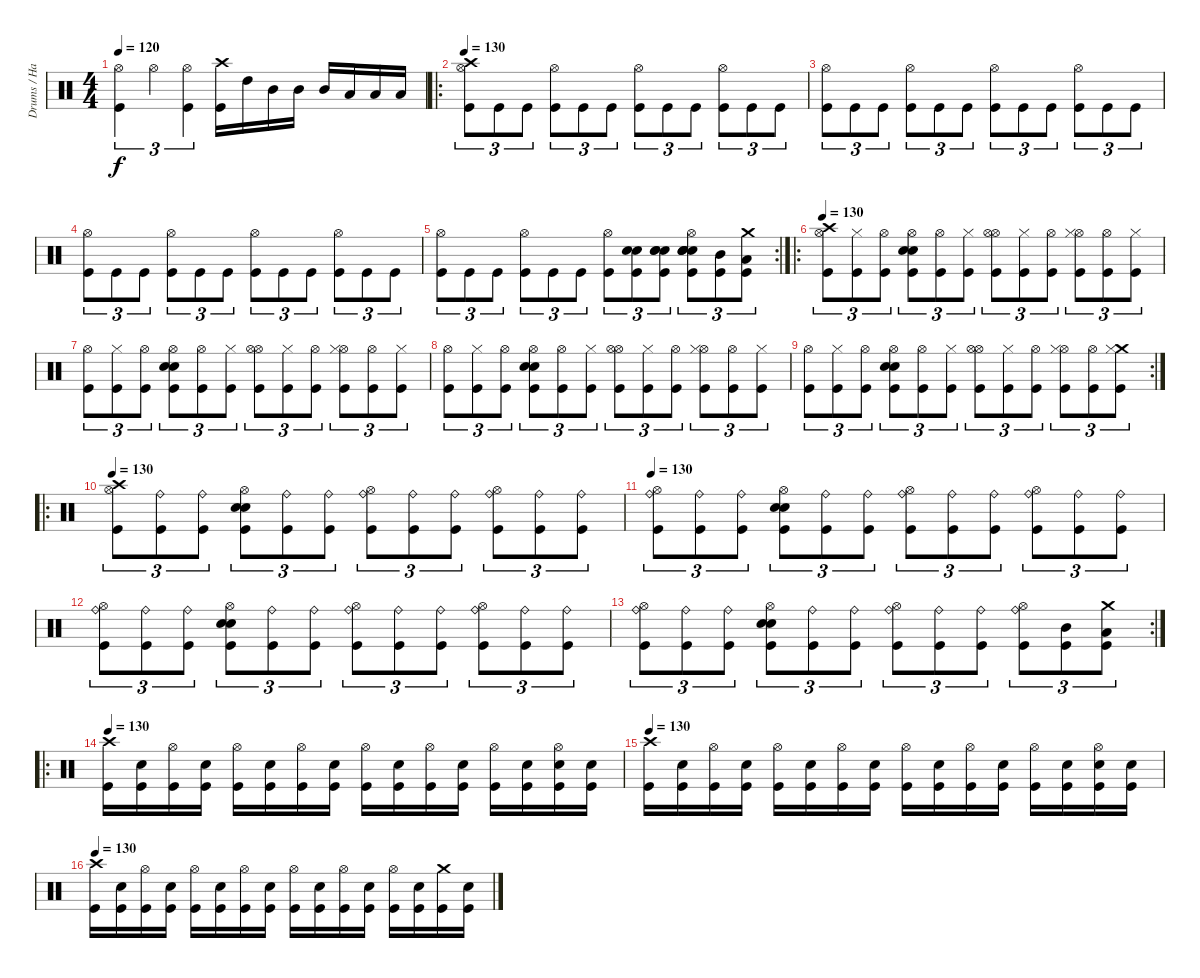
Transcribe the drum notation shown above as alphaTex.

\track ("Drums / Hammer of God" "Drums / Ha") {instrument percussion}
\staff {score}
\articulation defaults
\ts (4 4)
\tempo 120
\clef neutral
\ks c
("Kick (hit)" "Hi-Hat (open)").4{tu (3 2) dy f} "Hi-Hat (open)".4{tu (3 2)} ("Kick (hit)" "Hi-Hat (open)").4{tu (3 2)} ("Kick (hit)" "Crash high (hit)").16 "High Tom (hit)".16 "Mid Tom (hit)".16 "Mid Tom (hit)".16 "Mid Tom (hit)".16 "Low Tom (hit)".16 "Low Tom (hit)".16 "Low Tom (hit)".16 |
\ro
\tempo 130
("Crash high (hit)" "Hi-Hat (open)" "Kick (hit)").8{tu (3 2)} "Kick (hit)".8{tu (3 2)} "Kick (hit)".8{tu (3 2)} ("Hi-Hat (open)" "Kick (hit)").8{tu (3 2)} "Kick (hit)".8{tu (3 2)} "Kick (hit)".8{tu (3 2)} ("Hi-Hat (open)" "Kick (hit)").8{tu (3 2)} "Kick (hit)".8{tu (3 2)} "Kick (hit)".8{tu (3 2)} ("Hi-Hat (open)" "Kick (hit)").8{tu (3 2)} "Kick (hit)".8{tu (3 2)} "Kick (hit)".8{tu (3 2)} |
("Hi-Hat (open)" "Kick (hit)").8{tu (3 2)} "Kick (hit)".8{tu (3 2)} "Kick (hit)".8{tu (3 2)} ("Hi-Hat (open)" "Kick (hit)").8{tu (3 2)} "Kick (hit)".8{tu (3 2)} "Kick (hit)".8{tu (3 2)} ("Hi-Hat (open)" "Kick (hit)").8{tu (3 2)} "Kick (hit)".8{tu (3 2)} "Kick (hit)".8{tu (3 2)} ("Hi-Hat (open)" "Kick (hit)").8{tu (3 2)} "Kick (hit)".8{tu (3 2)} "Kick (hit)".8{tu (3 2)} |
("Hi-Hat (open)" "Kick (hit)").8{tu (3 2)} "Kick (hit)".8{tu (3 2)} "Kick (hit)".8{tu (3 2)} ("Hi-Hat (open)" "Kick (hit)").8{tu (3 2)} "Kick (hit)".8{tu (3 2)} "Kick (hit)".8{tu (3 2)} ("Hi-Hat (open)" "Kick (hit)").8{tu (3 2)} "Kick (hit)".8{tu (3 2)} "Kick (hit)".8{tu (3 2)} ("Hi-Hat (open)" "Kick (hit)").8{tu (3 2)} "Kick (hit)".8{tu (3 2)} "Kick (hit)".8{tu (3 2)} |
\rc 2
("Hi-Hat (open)" "Kick (hit)").8{tu (3 2)} "Kick (hit)".8{tu (3 2)} "Kick (hit)".8{tu (3 2)} ("Hi-Hat (open)" "Kick (hit)").8{tu (3 2)} "Kick (hit)".8{tu (3 2)} "Kick (hit)".8{tu (3 2)} ("Hi-Hat (open)" "Kick (hit)").8{tu (3 2)} ("Snare (hit) 2" "Snare (hit) 2" "Kick (hit)").8{tu (3 2)} ("Snare (hit) 2" "Snare (hit) 2" "Snare (hit) 2" "Kick (hit)").8{tu (3 2)} ("Snare (hit) 2" "Snare (hit) 2" "Snare (hit) 2" "Hi-Hat (open)" "Snare (hit) 2" "Kick (hit)").8{tu (3 2)} ("Mid Tom (hit)" "Kick (hit)").8{tu (3 2)} ("Crash medium (hit)" "Low Tom (hit)" "Kick (hit)").8{tu (3 2)} |
\ro
\tempo 130
("Crash high (hit)" "Hi-Hat (open)" "Kick (hit)").8{tu (3 2)} ("Hi-Hat (closed)" "Kick (hit)").8{tu (3 2)} ("Hi-Hat (open)" "Kick (hit)").8{tu (3 2)} ("Snare (hit) 2" "Hi-Hat (open)" "Snare (hit) 2" "Kick (hit)").8{tu (3 2)} ("Hi-Hat (open)" "Kick (hit)").8{tu (3 2)} ("Hi-Hat (closed)" "Kick (hit)").8{tu (3 2)} ("Hi-Hat (open)" "Hi-Hat (open)" "Kick (hit)").8{tu (3 2)} ("Hi-Hat (closed)" "Kick (hit)").8{tu (3 2)} ("Hi-Hat (open)" "Kick (hit)").8{tu (3 2)} ("Hi-Hat (open)" "Hi-Hat (closed)" "Kick (hit)").8{tu (3 2)} ("Hi-Hat (open)" "Kick (hit)").8{tu (3 2)} ("Hi-Hat (closed)" "Kick (hit)").8{tu (3 2)} |
("Hi-Hat (open)" "Kick (hit)").8{tu (3 2)} ("Hi-Hat (closed)" "Kick (hit)").8{tu (3 2)} ("Hi-Hat (open)" "Kick (hit)").8{tu (3 2)} ("Snare (hit) 2" "Hi-Hat (open)" "Snare (hit) 2" "Kick (hit)").8{tu (3 2)} ("Hi-Hat (open)" "Kick (hit)").8{tu (3 2)} ("Hi-Hat (closed)" "Kick (hit)").8{tu (3 2)} ("Hi-Hat (open)" "Hi-Hat (open)" "Kick (hit)").8{tu (3 2)} ("Hi-Hat (closed)" "Kick (hit)").8{tu (3 2)} ("Hi-Hat (open)" "Kick (hit)").8{tu (3 2)} ("Hi-Hat (open)" "Hi-Hat (closed)" "Kick (hit)").8{tu (3 2)} ("Hi-Hat (open)" "Kick (hit)").8{tu (3 2)} ("Hi-Hat (closed)" "Kick (hit)").8{tu (3 2)} |
("Hi-Hat (open)" "Kick (hit)").8{tu (3 2)} ("Hi-Hat (closed)" "Kick (hit)").8{tu (3 2)} ("Hi-Hat (open)" "Kick (hit)").8{tu (3 2)} ("Snare (hit) 2" "Hi-Hat (open)" "Snare (hit) 2" "Kick (hit)").8{tu (3 2)} ("Hi-Hat (open)" "Kick (hit)").8{tu (3 2)} ("Hi-Hat (closed)" "Kick (hit)").8{tu (3 2)} ("Hi-Hat (open)" "Hi-Hat (open)" "Kick (hit)").8{tu (3 2)} ("Hi-Hat (closed)" "Kick (hit)").8{tu (3 2)} ("Hi-Hat (open)" "Kick (hit)").8{tu (3 2)} ("Hi-Hat (open)" "Hi-Hat (closed)" "Kick (hit)").8{tu (3 2)} ("Hi-Hat (open)" "Kick (hit)").8{tu (3 2)} ("Hi-Hat (closed)" "Kick (hit)").8{tu (3 2)} |
\rc 2
("Hi-Hat (open)" "Kick (hit)").8{tu (3 2)} ("Hi-Hat (closed)" "Kick (hit)").8{tu (3 2)} ("Hi-Hat (open)" "Kick (hit)").8{tu (3 2)} ("Snare (hit) 2" "Hi-Hat (open)" "Snare (hit) 2" "Kick (hit)").8{tu (3 2)} ("Hi-Hat (open)" "Kick (hit)").8{tu (3 2)} ("Hi-Hat (closed)" "Kick (hit)").8{tu (3 2)} ("Hi-Hat (open)" "Hi-Hat (open)" "Kick (hit)").8{tu (3 2)} ("Hi-Hat (closed)" "Kick (hit)").8{tu (3 2)} ("Hi-Hat (open)" "Kick (hit)").8{tu (3 2)} ("Hi-Hat (open)" "Hi-Hat (closed)" "Kick (hit)").8{tu (3 2)} ("Hi-Hat (open)" "Kick (hit)").8{tu (3 2)} ("Crash medium (hit)" "Hi-Hat (closed)" "Kick (hit)").8{tu (3 2)} |
\ro
\tempo 130
("Crash high (hit)" "Hi-Hat (open)" "Kick (hit)").8{tu (3 2)} ("Ride (bell)" "Kick (hit)").8{tu (3 2)} ("Ride (bell)" "Kick (hit)").8{tu (3 2)} ("Snare (hit) 2" "Hi-Hat (open)" "Snare (hit) 2" "Kick (hit)").8{tu (3 2)} ("Ride (bell)" "Kick (hit)").8{tu (3 2)} ("Ride (bell)" "Kick (hit)").8{tu (3 2)} ("Hi-Hat (open)" "Ride (bell)" "Kick (hit)").8{tu (3 2)} ("Ride (bell)" "Kick (hit)").8{tu (3 2)} ("Ride (bell)" "Kick (hit)").8{tu (3 2)} ("Hi-Hat (open)" "Ride (bell)" "Kick (hit)").8{tu (3 2)} ("Ride (bell)" "Kick (hit)").8{tu (3 2)} ("Ride (bell)" "Kick (hit)").8{tu (3 2)} |
\tempo 130
("Hi-Hat (open)" "Ride (bell)" "Kick (hit)").8{tu (3 2)} ("Ride (bell)" "Kick (hit)").8{tu (3 2)} ("Ride (bell)" "Kick (hit)").8{tu (3 2)} ("Snare (hit) 2" "Hi-Hat (open)" "Snare (hit) 2" "Kick (hit)").8{tu (3 2)} ("Ride (bell)" "Kick (hit)").8{tu (3 2)} ("Ride (bell)" "Kick (hit)").8{tu (3 2)} ("Hi-Hat (open)" "Ride (bell)" "Kick (hit)").8{tu (3 2)} ("Ride (bell)" "Kick (hit)").8{tu (3 2)} ("Ride (bell)" "Kick (hit)").8{tu (3 2)} ("Hi-Hat (open)" "Ride (bell)" "Kick (hit)").8{tu (3 2)} ("Ride (bell)" "Kick (hit)").8{tu (3 2)} ("Ride (bell)" "Kick (hit)").8{tu (3 2)} |
("Hi-Hat (open)" "Ride (bell)" "Kick (hit)").8{tu (3 2)} ("Ride (bell)" "Kick (hit)").8{tu (3 2)} ("Ride (bell)" "Kick (hit)").8{tu (3 2)} ("Snare (hit) 2" "Hi-Hat (open)" "Snare (hit) 2" "Kick (hit)").8{tu (3 2)} ("Ride (bell)" "Kick (hit)").8{tu (3 2)} ("Ride (bell)" "Kick (hit)").8{tu (3 2)} ("Hi-Hat (open)" "Ride (bell)" "Kick (hit)").8{tu (3 2)} ("Ride (bell)" "Kick (hit)").8{tu (3 2)} ("Ride (bell)" "Kick (hit)").8{tu (3 2)} ("Hi-Hat (open)" "Ride (bell)" "Kick (hit)").8{tu (3 2)} ("Ride (bell)" "Kick (hit)").8{tu (3 2)} ("Ride (bell)" "Kick (hit)").8{tu (3 2)} |
\rc 2
("Hi-Hat (open)" "Ride (bell)" "Kick (hit)").8{tu (3 2)} ("Ride (bell)" "Kick (hit)").8{tu (3 2)} ("Ride (bell)" "Kick (hit)").8{tu (3 2)} ("Snare (hit) 2" "Hi-Hat (open)" "Snare (hit) 2" "Kick (hit)").8{tu (3 2)} ("Ride (bell)" "Kick (hit)").8{tu (3 2)} ("Ride (bell)" "Kick (hit)").8{tu (3 2)} ("Hi-Hat (open)" "Ride (bell)" "Kick (hit)").8{tu (3 2)} ("Ride (bell)" "Kick (hit)").8{tu (3 2)} ("Ride (bell)" "Kick (hit)").8{tu (3 2)} ("Hi-Hat (open)" "Ride (bell)" "Kick (hit)").8{tu (3 2)} ("Mid Tom (hit)" "Kick (hit)").8{tu (3 2)} ("Crash medium (hit)" "Low Tom (hit)" "Kick (hit)").8{tu (3 2)} |
\ro
\tempo 130
("Crash high (hit)" "Kick (hit)").16 ("Snare (hit) 2" "Kick (hit)").16 ("Hi-Hat (open)" "Kick (hit)").16 ("Snare (hit) 2" "Kick (hit)").16 ("Hi-Hat (open)" "Kick (hit)").16 ("Snare (hit) 2" "Kick (hit)").16 ("Hi-Hat (open)" "Kick (hit)").16 ("Snare (hit) 2" "Kick (hit)").16 ("Hi-Hat (open)" "Kick (hit)").16 ("Snare (hit) 2" "Kick (hit)").16 ("Hi-Hat (open)" "Kick (hit)").16 ("Snare (hit) 2" "Kick (hit)").16 ("Hi-Hat (open)" "Kick (hit)").16 ("Snare (hit) 2" "Kick (hit)").16 ("Hi-Hat (open)" "Snare (hit) 2" "Kick (hit)").16 ("Snare (hit) 2" "Kick (hit)").16 |
\tempo 130
("Crash high (hit)" "Kick (hit)").16 ("Snare (hit) 2" "Kick (hit)").16 ("Hi-Hat (open)" "Kick (hit)").16 ("Snare (hit) 2" "Kick (hit)").16 ("Hi-Hat (open)" "Kick (hit)").16 ("Snare (hit) 2" "Kick (hit)").16 ("Hi-Hat (open)" "Kick (hit)").16 ("Snare (hit) 2" "Kick (hit)").16 ("Hi-Hat (open)" "Kick (hit)").16 ("Snare (hit) 2" "Kick (hit)").16 ("Hi-Hat (open)" "Kick (hit)").16 ("Snare (hit) 2" "Kick (hit)").16 ("Hi-Hat (open)" "Kick (hit)").16 ("Snare (hit) 2" "Kick (hit)").16 ("Hi-Hat (open)" "Snare (hit) 2" "Kick (hit)").16 ("Snare (hit) 2" "Kick (hit)").16 |
\tempo 130
("Crash high (hit)" "Kick (hit)").16 ("Snare (hit) 2" "Kick (hit)").16 ("Hi-Hat (open)" "Kick (hit)").16 ("Snare (hit) 2" "Kick (hit)").16 ("Hi-Hat (open)" "Kick (hit)").16 ("Snare (hit) 2" "Kick (hit)").16 ("Hi-Hat (open)" "Kick (hit)").16 ("Snare (hit) 2" "Kick (hit)").16 ("Hi-Hat (open)" "Kick (hit)").16 ("Snare (hit) 2" "Kick (hit)").16 ("Hi-Hat (open)" "Kick (hit)").16 ("Snare (hit) 2" "Kick (hit)").16 ("Hi-Hat (open)" "Kick (hit)").16 ("Snare (hit) 2" "Kick (hit)").16 ("Crash medium (hit)" "Kick (hit)").16 ("Snare (hit) 2" "Kick (hit)").16
